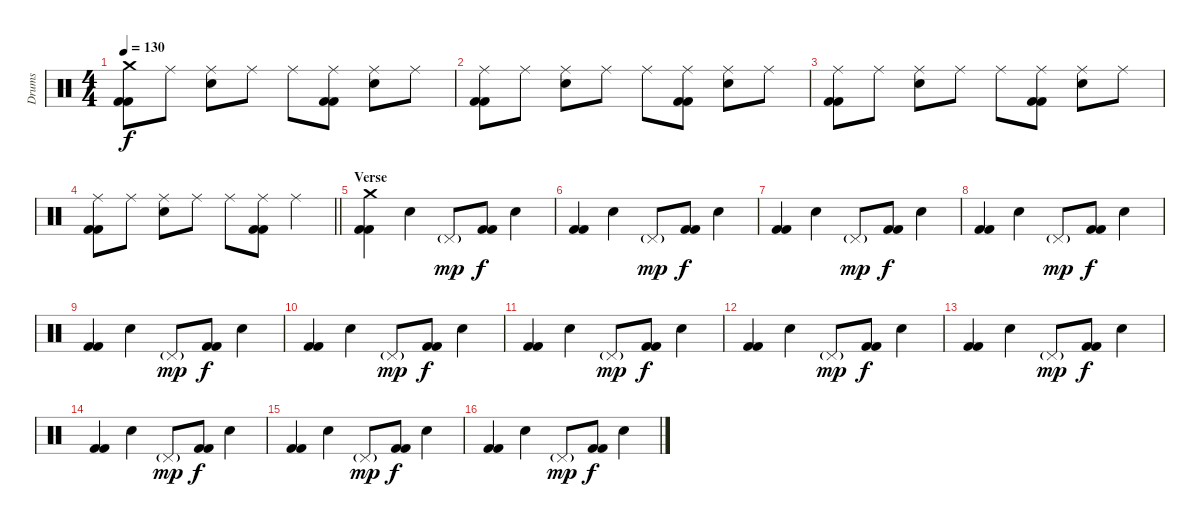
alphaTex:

\track ("Drums" "Drums") {instrument percussion}
\staff {score}
\articulation defaults
\ts (4 4)
\tempo 130
\clef neutral
\ks c
("Crash medium (hit)" "Kick (hit) 2" "Kick (hit) 2").8{dy f} "Ride (middle)".8 ("Ride (middle)" "Electric Snare (hit)").8 "Ride (middle)".8 "Ride (middle)".8 ("Ride (middle)" "Kick (hit) 2" "Kick (hit) 2").8 ("Ride (middle)" "Electric Snare (hit)").8 "Ride (middle)".8 |
("Ride (middle)" "Kick (hit) 2" "Kick (hit) 2").8 "Ride (middle)".8 ("Ride (middle)" "Electric Snare (hit)").8 "Ride (middle)".8 "Ride (middle)".8 ("Ride (middle)" "Kick (hit) 2" "Kick (hit) 2").8 ("Ride (middle)" "Electric Snare (hit)").8 "Ride (middle)".8 |
("Ride (middle)" "Kick (hit) 2" "Kick (hit) 2").8 "Ride (middle)".8 ("Ride (middle)" "Electric Snare (hit)").8 "Ride (middle)".8 "Ride (middle)".8 ("Ride (middle)" "Kick (hit) 2" "Kick (hit) 2").8 ("Ride (middle)" "Electric Snare (hit)").8 "Ride (middle)".8 |
\barLineRight lightlight
("Ride (middle)" "Kick (hit) 2" "Kick (hit) 2").8 "Ride (middle)".8 ("Ride (middle)" "Electric Snare (hit)").8 "Ride (middle)".8 "Ride (middle)".8 ("Ride (middle)" "Kick (hit) 2" "Kick (hit) 2").8 "Ride (middle)".4 |
\section ("" "Verse")
("Crash medium (hit)" "Kick (hit) 2" "Kick (hit) 2").4 "Electric Snare (hit)".4 "Pedal Hi-Hat (hit)"{g}.8{dy mp} ("Kick (hit) 2" "Kick (hit) 2").8{dy f} "Electric Snare (hit)".4 |
("Kick (hit) 2" "Kick (hit) 2").4 "Electric Snare (hit)".4 "Pedal Hi-Hat (hit)"{g}.8{dy mp} ("Kick (hit) 2" "Kick (hit) 2").8{dy f} "Electric Snare (hit)".4 |
("Kick (hit) 2" "Kick (hit) 2").4 "Electric Snare (hit)".4 "Pedal Hi-Hat (hit)"{g}.8{dy mp} ("Kick (hit) 2" "Kick (hit) 2").8{dy f} "Electric Snare (hit)".4 |
("Kick (hit) 2" "Kick (hit) 2").4 "Electric Snare (hit)".4 "Pedal Hi-Hat (hit)"{g}.8{dy mp} ("Kick (hit) 2" "Kick (hit) 2").8{dy f} "Electric Snare (hit)".4 |
("Kick (hit) 2" "Kick (hit) 2").4 "Electric Snare (hit)".4 "Pedal Hi-Hat (hit)"{g}.8{dy mp} ("Kick (hit) 2" "Kick (hit) 2").8{dy f} "Electric Snare (hit)".4 |
("Kick (hit) 2" "Kick (hit) 2").4 "Electric Snare (hit)".4 "Pedal Hi-Hat (hit)"{g}.8{dy mp} ("Kick (hit) 2" "Kick (hit) 2").8{dy f} "Electric Snare (hit)".4 |
("Kick (hit) 2" "Kick (hit) 2").4 "Electric Snare (hit)".4 "Pedal Hi-Hat (hit)"{g}.8{dy mp} ("Kick (hit) 2" "Kick (hit) 2").8{dy f} "Electric Snare (hit)".4 |
("Kick (hit) 2" "Kick (hit) 2").4 "Electric Snare (hit)".4 "Pedal Hi-Hat (hit)"{g}.8{dy mp} ("Kick (hit) 2" "Kick (hit) 2").8{dy f} "Electric Snare (hit)".4 |
("Kick (hit) 2" "Kick (hit) 2").4 "Electric Snare (hit)".4 "Pedal Hi-Hat (hit)"{g}.8{dy mp} ("Kick (hit) 2" "Kick (hit) 2").8{dy f} "Electric Snare (hit)".4 |
("Kick (hit) 2" "Kick (hit) 2").4 "Electric Snare (hit)".4 "Pedal Hi-Hat (hit)"{g}.8{dy mp} ("Kick (hit) 2" "Kick (hit) 2").8{dy f} "Electric Snare (hit)".4 |
("Kick (hit) 2" "Kick (hit) 2").4 "Electric Snare (hit)".4 "Pedal Hi-Hat (hit)"{g}.8{dy mp} ("Kick (hit) 2" "Kick (hit) 2").8{dy f} "Electric Snare (hit)".4 |
("Kick (hit) 2" "Kick (hit) 2").4 "Electric Snare (hit)".4 "Pedal Hi-Hat (hit)"{g}.8{dy mp} ("Kick (hit) 2" "Kick (hit) 2").8{dy f} "Electric Snare (hit)".4
